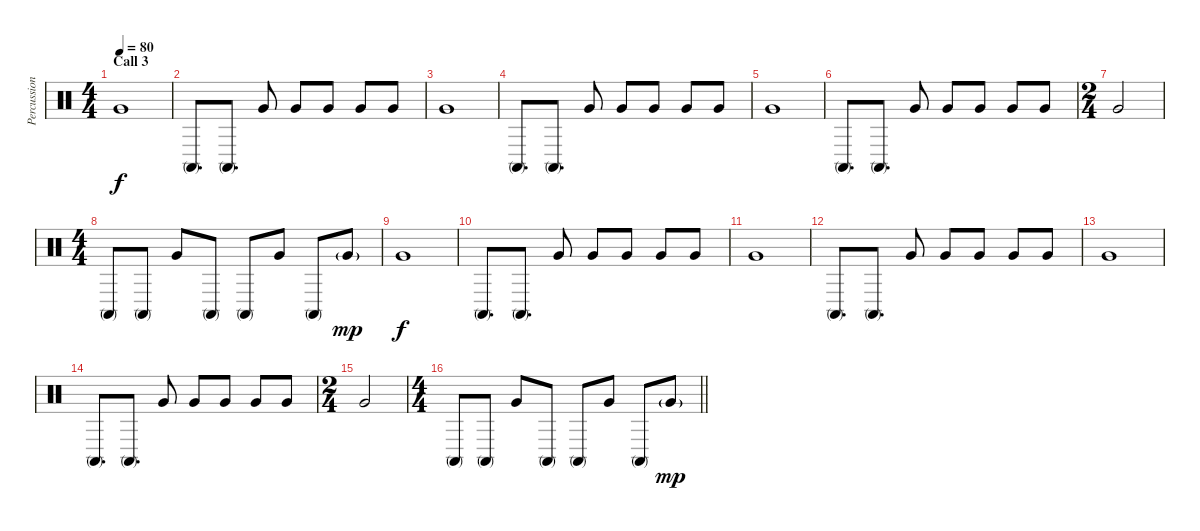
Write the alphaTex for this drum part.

\track ("Percussion" "Percussion") {instrument percussion}
\staff {score}
\articulation defaults
\ts (4 4)
\section ("" "Call 3")
\tempo 80
\clef neutral
\ks c "Very Low Tom (hit)".1{dy f}
|
"Conga high (mute)".8{d} "Conga high (mute)".8{d} "Very Low Tom (hit)".8 "Very Low Tom (hit)".8 "Very Low Tom (hit)".8 "Very Low Tom (hit)".8 "Very Low Tom (hit)".8 |
"Very Low Tom (hit)".1 |
"Conga high (mute)".8{d} "Conga high (mute)".8{d} "Very Low Tom (hit)".8 "Very Low Tom (hit)".8 "Very Low Tom (hit)".8 "Very Low Tom (hit)".8 "Very Low Tom (hit)".8 |
"Very Low Tom (hit)".1 |
"Conga high (mute)".8{d} "Conga high (mute)".8{d} "Very Low Tom (hit)".8 "Very Low Tom (hit)".8 "Very Low Tom (hit)".8 "Very Low Tom (hit)".8 "Very Low Tom (hit)".8 |
\ts (2 4)
"Very Low Tom (hit)".2 |
\ts (4 4)
"Conga high (mute)".8 "Conga high (mute)".8 "Very Low Tom (hit)".8 "Conga high (mute)".8 "Conga high (mute)".8 "Very Low Tom (hit)".8 "Conga high (mute)".8 "Very Low Tom (hit)"{g}.8{dy mp} |
"Very Low Tom (hit)".1{dy f} |
"Conga high (mute)".8{d} "Conga high (mute)".8{d} "Very Low Tom (hit)".8 "Very Low Tom (hit)".8 "Very Low Tom (hit)".8 "Very Low Tom (hit)".8 "Very Low Tom (hit)".8 |
"Very Low Tom (hit)".1 |
"Conga high (mute)".8{d} "Conga high (mute)".8{d} "Very Low Tom (hit)".8 "Very Low Tom (hit)".8 "Very Low Tom (hit)".8 "Very Low Tom (hit)".8 "Very Low Tom (hit)".8 |
"Very Low Tom (hit)".1 |
"Conga high (mute)".8{d} "Conga high (mute)".8{d} "Very Low Tom (hit)".8 "Very Low Tom (hit)".8 "Very Low Tom (hit)".8 "Very Low Tom (hit)".8 "Very Low Tom (hit)".8 |
\ts (2 4)
"Very Low Tom (hit)".2 |
\ts (4 4)
\barLineRight lightlight "Conga high (mute)".8 "Conga high (mute)".8 "Very Low Tom (hit)".8 "Conga high (mute)".8 "Conga high (mute)".8 "Very Low Tom (hit)".8 "Conga high (mute)".8 "Very Low Tom (hit)"{g}.8{dy mp}
